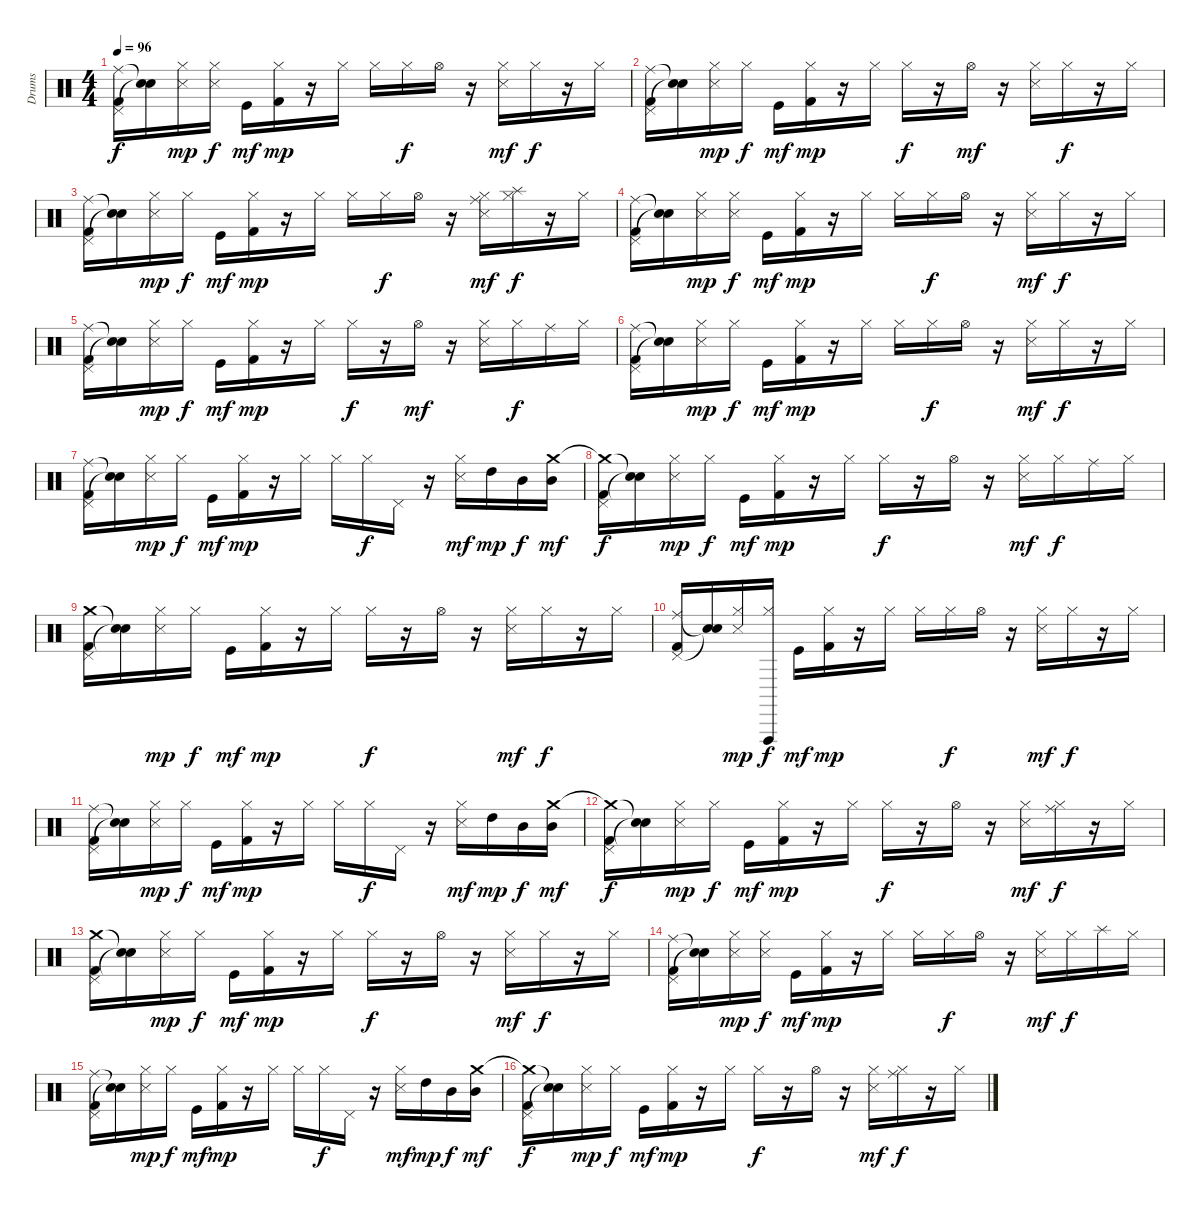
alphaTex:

\track ("Drums" "Drums") {instrument percussion}
\staff {score}
\articulation defaults
\ts (4 4)
\tempo 96
\clef neutral
\ks c
("Ride (middle)" "Pedal Hi-Hat (hit)" "Kick (hit) 2").16{dy f} ("Snare (hit)"{t} "Snare (hit)"{t}).16 ("Hi-Hat (closed)" "Snare (side stick) 3").16{dy mp} ("Hi-Hat (closed)" "Snare (side stick) 3").16{dy f} "Kick (hit)".16{dy mf} ("Hi-Hat (closed)" "Kick (hit) 2").16{dy mp} r.16 "Hi-Hat (closed)".16 "Hi-Hat (closed)".16 "Hi-Hat (closed)".16{dy f} "Hi-Hat (open)".16 r.16 ("Hi-Hat (closed)" "Snare (side stick) 3").16{dy mf} "Hi-Hat (closed)".16{dy f} r.16 "Hi-Hat (closed)".16 |
("Ride (middle)" "Pedal Hi-Hat (hit)" "Kick (hit) 2").16 ("Snare (hit)"{t} "Snare (hit)"{t}).16 ("Hi-Hat (closed)" "Snare (side stick) 3").16{dy mp} "Hi-Hat (closed)".16{dy f} "Kick (hit)".16{dy mf} ("Hi-Hat (closed)" "Kick (hit) 2").16{dy mp} r.16 "Hi-Hat (closed)".16 "Hi-Hat (closed)".16{dy f} r.16 "Hi-Hat (open)".16{dy mf} r.16 ("Hi-Hat (closed)" "Snare (side stick) 3").16 "Hi-Hat (closed)".16{dy f} r.16 "Hi-Hat (closed)".16 |
("Ride (middle)" "Pedal Hi-Hat (hit)" "Kick (hit) 2").16 ("Snare (hit)"{t} "Snare (hit)"{t}).16 ("Hi-Hat (closed)" "Snare (side stick) 3").16{dy mp} "Hi-Hat (closed)".16{dy f} "Kick (hit)".16{dy mf} ("Hi-Hat (closed)" "Kick (hit) 2").16{dy mp} r.16 "Hi-Hat (closed)".16 "Hi-Hat (closed)".16 "Hi-Hat (closed)".16{dy f} "Hi-Hat (open)".16 r.16 ("Ride (middle)" "Hi-Hat (closed)" "Snare (side stick) 3").16{dy mf} ("Splash (hit)" "Hi-Hat (closed)").16{dy f} r.16 "Hi-Hat (closed)".16 |
("Ride (middle)" "Pedal Hi-Hat (hit)" "Kick (hit) 2").16 ("Snare (hit)"{t} "Snare (hit)"{t}).16 ("Hi-Hat (closed)" "Snare (side stick) 3").16{dy mp} ("Hi-Hat (closed)" "Snare (side stick) 3").16{dy f} "Kick (hit)".16{dy mf} ("Hi-Hat (closed)" "Kick (hit) 2").16{dy mp} r.16 "Hi-Hat (closed)".16 "Hi-Hat (closed)".16 "Hi-Hat (closed)".16{dy f} "Hi-Hat (open)".16 r.16 ("Hi-Hat (closed)" "Snare (side stick) 3").16{dy mf} "Hi-Hat (closed)".16{dy f} r.16 "Hi-Hat (closed)".16 |
("Ride (middle)" "Pedal Hi-Hat (hit)" "Kick (hit) 2").16 ("Snare (hit)"{t} "Snare (hit)"{t}).16 ("Hi-Hat (closed)" "Snare (side stick) 3").16{dy mp} "Hi-Hat (closed)".16{dy f} "Kick (hit)".16{dy mf} ("Hi-Hat (closed)" "Kick (hit) 2").16{dy mp} r.16 "Hi-Hat (closed)".16 "Hi-Hat (closed)".16{dy f} r.16 "Hi-Hat (open)".16{dy mf} r.16 ("Hi-Hat (closed)" "Snare (side stick) 3").16 "Hi-Hat (closed)".16{dy f} "Ride (middle)".16 "Hi-Hat (closed)".16 |
("Ride (middle)" "Pedal Hi-Hat (hit)" "Kick (hit) 2").16 ("Snare (hit)"{t} "Snare (hit)"{t}).16 ("Hi-Hat (closed)" "Snare (side stick) 3").16{dy mp} "Hi-Hat (closed)".16{dy f} "Kick (hit)".16{dy mf} ("Hi-Hat (closed)" "Kick (hit) 2").16{dy mp} r.16 "Hi-Hat (closed)".16 "Hi-Hat (closed)".16 "Hi-Hat (closed)".16{dy f} "Hi-Hat (open)".16 r.16 ("Hi-Hat (closed)" "Snare (side stick) 3").16{dy mf} "Hi-Hat (closed)".16{dy f} r.16 "Hi-Hat (closed)".16 |
("Ride (middle)" "Pedal Hi-Hat (hit)" "Kick (hit) 2").16 ("Snare (hit)"{t} "Snare (hit)"{t}).16 ("Hi-Hat (closed)" "Snare (side stick) 3").16{dy mp} "Hi-Hat (closed)".16{dy f} "Kick (hit)".16{dy mf} ("Hi-Hat (closed)" "Kick (hit) 2").16{dy mp} r.16 "Hi-Hat (closed)".16 "Hi-Hat (closed)".16 "Hi-Hat (closed)".16{dy f} "Pedal Hi-Hat (hit)".16 r.16 ("Hi-Hat (closed)" "Snare (side stick) 3").16{dy mf} "High Tom (hit)".16{dy mp} "Mid Tom (hit)".16{dy f} ("Crash medium (hit)" "Mid Tom (hit)").16{dy mf} |
("Crash medium (hit)"{t} "Pedal Hi-Hat (hit)" "Kick (hit) 2").16{dy f} ("Snare (hit)"{t} "Snare (hit)"{t}).16 ("Hi-Hat (closed)" "Snare (side stick) 3").16{dy mp} "Hi-Hat (closed)".16{dy f} "Kick (hit)".16{dy mf} ("Hi-Hat (closed)" "Kick (hit) 2").16{dy mp} r.16 "Hi-Hat (closed)".16 "Hi-Hat (closed)".16{dy f} r.16 "Hi-Hat (open)".16 r.16 ("Hi-Hat (closed)" "Snare (side stick) 3").16{dy mf} "Hi-Hat (closed)".16{dy f} "Ride (middle)".16 "Hi-Hat (closed)".16 |
("Crash medium (hit)" "Pedal Hi-Hat (hit)" "Kick (hit) 2").16 ("Snare (hit)"{t} "Snare (hit)"{t}).16 ("Hi-Hat (closed)" "Snare (side stick) 3").16{dy mp} "Hi-Hat (closed)".16{dy f} "Kick (hit)".16{dy mf} ("Hi-Hat (closed)" "Kick (hit) 2").16{dy mp} r.16 "Hi-Hat (closed)".16 "Hi-Hat (closed)".16{dy f} r.16 "Hi-Hat (open)".16 r.16 ("Hi-Hat (closed)" "Snare (side stick) 3").16{dy mf} "Hi-Hat (closed)".16{dy f} r.16 "Hi-Hat (closed)".16 |
("Ride (middle)" "Pedal Hi-Hat (hit)" "Kick (hit) 2").16 ("Snare (hit)"{t} "Snare (hit)"{t}).16 ("Hi-Hat (closed)" "Snare (side stick) 3").16{dy mp} ("Hi-Hat (closed)" "Vibraslap (hit)").16{dy f} "Kick (hit)".16{dy mf} ("Hi-Hat (closed)" "Kick (hit) 2").16{dy mp} r.16 "Hi-Hat (closed)".16 "Hi-Hat (closed)".16 "Hi-Hat (closed)".16{dy f} "Hi-Hat (open)".16 r.16 ("Hi-Hat (closed)" "Snare (side stick) 3").16{dy mf} "Hi-Hat (closed)".16{dy f} r.16 "Hi-Hat (closed)".16 |
("Ride (middle)" "Pedal Hi-Hat (hit)" "Kick (hit) 2").16 ("Snare (hit)"{t} "Snare (hit)"{t}).16 ("Hi-Hat (closed)" "Snare (side stick) 3").16{dy mp} "Hi-Hat (closed)".16{dy f} "Kick (hit)".16{dy mf} ("Hi-Hat (closed)" "Kick (hit) 2").16{dy mp} r.16 "Hi-Hat (closed)".16 "Hi-Hat (closed)".16 "Hi-Hat (closed)".16{dy f} "Pedal Hi-Hat (hit)".16 r.16 ("Hi-Hat (closed)" "Snare (side stick) 3").16{dy mf} "High Tom (hit)".16{dy mp} "Mid Tom (hit)".16{dy f} ("Crash medium (hit)" "Mid Tom (hit)").16{dy mf} |
("Crash medium (hit)"{t} "Pedal Hi-Hat (hit)" "Kick (hit) 2").16{dy f} ("Snare (hit)"{t} "Snare (hit)"{t}).16 ("Hi-Hat (closed)" "Snare (side stick) 3").16{dy mp} "Hi-Hat (closed)".16{dy f} "Kick (hit)".16{dy mf} ("Hi-Hat (closed)" "Kick (hit) 2").16{dy mp} r.16 "Hi-Hat (closed)".16 "Hi-Hat (closed)".16{dy f} r.16 "Hi-Hat (open)".16 r.16 ("Hi-Hat (closed)" "Snare (side stick) 3").16{dy mf} ("Ride (middle)" "Hi-Hat (closed)").16{dy f} r.16 "Hi-Hat (closed)".16 |
("Crash medium (hit)" "Pedal Hi-Hat (hit)" "Kick (hit) 2").16 ("Snare (hit)"{t} "Snare (hit)"{t}).16 ("Hi-Hat (closed)" "Snare (side stick) 3").16{dy mp} "Hi-Hat (closed)".16{dy f} "Kick (hit)".16{dy mf} ("Hi-Hat (closed)" "Kick (hit) 2").16{dy mp} r.16 "Hi-Hat (closed)".16 "Hi-Hat (closed)".16{dy f} r.16 "Hi-Hat (open)".16 r.16 ("Hi-Hat (closed)" "Snare (side stick) 3").16{dy mf} "Hi-Hat (closed)".16{dy f} r.16 "Hi-Hat (closed)".16 |
("Ride (middle)" "Pedal Hi-Hat (hit)" "Kick (hit) 2").16 ("Snare (hit)"{t} "Snare (hit)"{t}).16 ("Hi-Hat (closed)" "Snare (side stick) 3").16{dy mp} ("Hi-Hat (closed)" "Snare (side stick) 3").16{dy f} "Kick (hit)".16{dy mf} ("Hi-Hat (closed)" "Kick (hit) 2").16{dy mp} r.16 "Hi-Hat (closed)".16 "Hi-Hat (closed)".16 "Hi-Hat (closed)".16{dy f} "Hi-Hat (open)".16 r.16 ("Hi-Hat (closed)" "Snare (side stick) 3").16{dy mf} "Hi-Hat (closed)".16{dy f} "Splash (hit)".16 "Hi-Hat (closed)".16 |
("Ride (middle)" "Pedal Hi-Hat (hit)" "Kick (hit) 2").16 ("Snare (hit)"{t} "Snare (hit)"{t}).16 ("Hi-Hat (closed)" "Snare (side stick) 3").16{dy mp} "Hi-Hat (closed)".16{dy f} "Kick (hit)".16{dy mf} ("Hi-Hat (closed)" "Kick (hit) 2").16{dy mp} r.16 "Hi-Hat (closed)".16 "Hi-Hat (closed)".16 "Hi-Hat (closed)".16{dy f} "Pedal Hi-Hat (hit)".16 r.16 ("Hi-Hat (closed)" "Snare (side stick) 3").16{dy mf} "High Tom (hit)".16{dy mp} "Mid Tom (hit)".16{dy f} ("Crash medium (hit)" "Mid Tom (hit)").16{dy mf} |
("Crash medium (hit)"{t} "Pedal Hi-Hat (hit)" "Kick (hit) 2").16{dy f} ("Snare (hit)"{t} "Snare (hit)"{t}).16 ("Hi-Hat (closed)" "Snare (side stick) 3").16{dy mp} "Hi-Hat (closed)".16{dy f} "Kick (hit)".16{dy mf} ("Hi-Hat (closed)" "Kick (hit) 2").16{dy mp} r.16 "Hi-Hat (closed)".16 "Hi-Hat (closed)".16{dy f} r.16 "Hi-Hat (open)".16 r.16 ("Hi-Hat (closed)" "Snare (side stick) 3").16{dy mf} ("Ride (middle)" "Hi-Hat (closed)").16{dy f} r.16 "Hi-Hat (closed)".16
